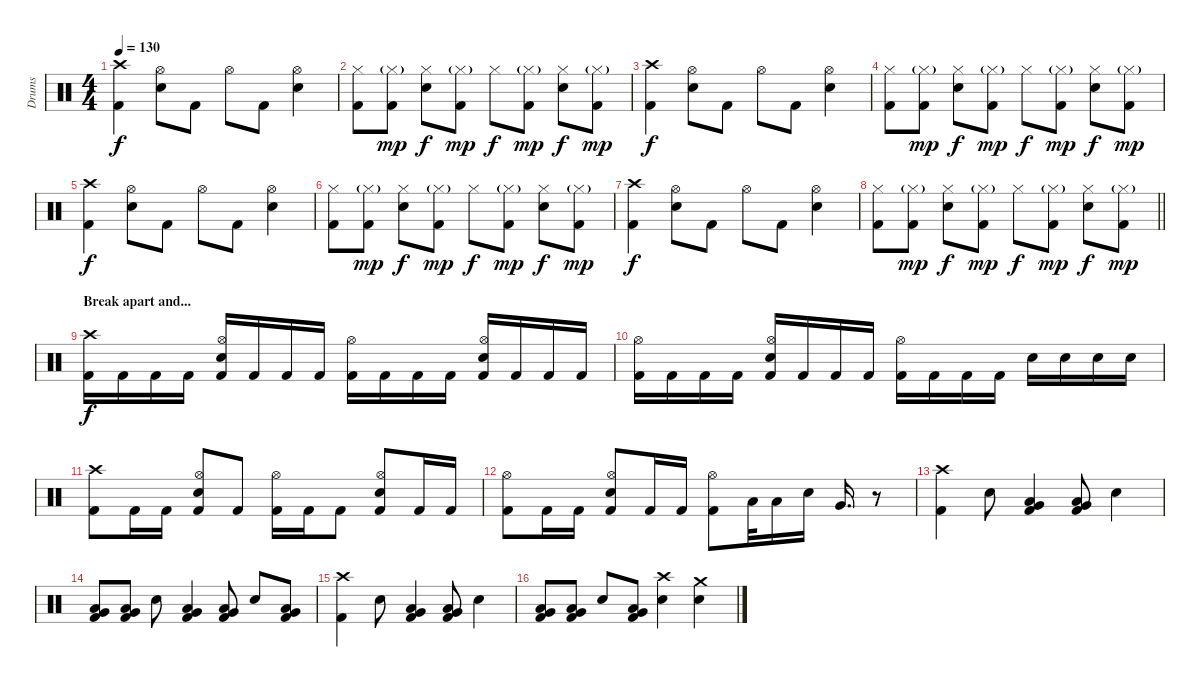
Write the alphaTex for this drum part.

\track ("Drums" "Drums") {instrument percussion}
\staff {score}
\articulation defaults
\ts (4 4)
\section ("" "")
\tempo 130
\clef neutral
\ks c
("Crash high (hit)" "Kick (hit) 2").4{dy f} ("Hi-Hat (open)" "Snare (hit) 2").8 "Kick (hit) 2".8 "Hi-Hat (open)".8 "Kick (hit) 2".8 ("Hi-Hat (open)" "Snare (hit) 2").4 |
("Hi-Hat (closed)" "Kick (hit) 2").8 ("Hi-Hat (closed)"{g} "Kick (hit) 2").8{dy mp} ("Hi-Hat (closed)" "Snare (hit) 2").8{dy f} ("Hi-Hat (closed)"{g} "Kick (hit) 2").8{dy mp} "Hi-Hat (closed)".8{dy f} ("Hi-Hat (closed)"{g} "Kick (hit) 2").8{dy mp} ("Hi-Hat (closed)" "Snare (hit) 2").8{dy f} ("Hi-Hat (closed)"{g} "Kick (hit) 2").8{dy mp} |
("Crash high (hit)" "Kick (hit) 2").4{dy f} ("Hi-Hat (open)" "Snare (hit) 2").8 "Kick (hit) 2".8 "Hi-Hat (open)".8 "Kick (hit) 2".8 ("Hi-Hat (open)" "Snare (hit) 2").4 |
("Hi-Hat (closed)" "Kick (hit) 2").8 ("Hi-Hat (closed)"{g} "Kick (hit) 2").8{dy mp} ("Hi-Hat (closed)" "Snare (hit) 2").8{dy f} ("Hi-Hat (closed)"{g} "Kick (hit) 2").8{dy mp} "Hi-Hat (closed)".8{dy f} ("Hi-Hat (closed)"{g} "Kick (hit) 2").8{dy mp} ("Hi-Hat (closed)" "Snare (hit) 2").8{dy f} ("Hi-Hat (closed)"{g} "Kick (hit) 2").8{dy mp} |
("Crash high (hit)" "Kick (hit) 2").4{dy f} ("Hi-Hat (open)" "Snare (hit) 2").8 "Kick (hit) 2".8 "Hi-Hat (open)".8 "Kick (hit) 2".8 ("Hi-Hat (open)" "Snare (hit) 2").4 |
("Hi-Hat (closed)" "Kick (hit) 2").8 ("Hi-Hat (closed)"{g} "Kick (hit) 2").8{dy mp} ("Hi-Hat (closed)" "Snare (hit) 2").8{dy f} ("Hi-Hat (closed)"{g} "Kick (hit) 2").8{dy mp} "Hi-Hat (closed)".8{dy f} ("Hi-Hat (closed)"{g} "Kick (hit) 2").8{dy mp} ("Hi-Hat (closed)" "Snare (hit) 2").8{dy f} ("Hi-Hat (closed)"{g} "Kick (hit) 2").8{dy mp} |
("Crash high (hit)" "Kick (hit) 2").4{dy f} ("Hi-Hat (open)" "Snare (hit) 2").8 "Kick (hit) 2".8 "Hi-Hat (open)".8 "Kick (hit) 2".8 ("Hi-Hat (open)" "Snare (hit) 2").4 |
\barLineRight lightlight
("Hi-Hat (closed)" "Kick (hit) 2").8 ("Hi-Hat (closed)"{g} "Kick (hit) 2").8{dy mp} ("Hi-Hat (closed)" "Snare (hit) 2").8{dy f} ("Hi-Hat (closed)"{g} "Kick (hit) 2").8{dy mp} "Hi-Hat (closed)".8{dy f} ("Hi-Hat (closed)"{g} "Kick (hit) 2").8{dy mp} ("Hi-Hat (closed)" "Snare (hit) 2").8{dy f} ("Hi-Hat (closed)"{g} "Kick (hit) 2").8{dy mp} |
\section ("" "Break apart and...")
("Crash high (hit)" "Kick (hit) 2").16{dy f} "Kick (hit) 2".16 "Kick (hit) 2".16 "Kick (hit) 2".16 ("Hi-Hat (open)" "Snare (hit) 2" "Kick (hit) 2").16 "Kick (hit) 2".16 "Kick (hit) 2".16 "Kick (hit) 2".16 ("Hi-Hat (open)" "Kick (hit) 2").16 "Kick (hit) 2".16 "Kick (hit) 2".16 "Kick (hit) 2".16 ("Hi-Hat (open)" "Snare (hit) 2" "Kick (hit) 2").16 "Kick (hit) 2".16 "Kick (hit) 2".16 "Kick (hit) 2".16 |
("Hi-Hat (open)" "Kick (hit) 2").16 "Kick (hit) 2".16 "Kick (hit) 2".16 "Kick (hit) 2".16 ("Hi-Hat (open)" "Snare (hit) 2" "Kick (hit) 2").16 "Kick (hit) 2".16 "Kick (hit) 2".16 "Kick (hit) 2".16 ("Hi-Hat (open)" "Kick (hit) 2").16 "Kick (hit) 2".16 "Kick (hit) 2".16 "Kick (hit) 2".16 "Snare (hit) 2".16 "Snare (hit) 2".16 "Snare (hit) 2".16 "Snare (hit) 2".16 |
("Crash high (hit)" "Kick (hit) 2").8 "Kick (hit) 2".16 "Kick (hit) 2".16 ("Hi-Hat (open)" "Snare (hit) 2" "Kick (hit) 2").8 "Kick (hit) 2".8 ("Hi-Hat (open)" "Kick (hit) 2").16 "Kick (hit) 2".16 "Kick (hit) 2".8 ("Hi-Hat (open)" "Snare (hit) 2" "Kick (hit) 2").8 "Kick (hit) 2".16 "Kick (hit) 2".16 |
("Hi-Hat (open)" "Kick (hit) 2").8 "Kick (hit) 2".16 "Kick (hit) 2".16 ("Hi-Hat (open)" "Snare (hit) 2" "Kick (hit) 2").8 "Kick (hit) 2".16 "Kick (hit) 2".16 ("Hi-Hat (open)" "Kick (hit) 2").8 "Low Tom (hit)".32 "Low Tom (hit)".16 "Snare (hit) 2".16 "Very Low Tom (hit)".16{d} r.8 |
("Crash high (hit)" "Kick (hit) 2").4 "Snare (hit) 2".8 ("Low Tom (hit)" "Very Low Tom (hit)" "Kick (hit) 2").4 ("Low Tom (hit)" "Very Low Tom (hit)" "Kick (hit) 2").8 "Snare (hit) 2".4 |
("Low Floor Tom (hit)" "Very Low Tom (hit)" "Kick (hit) 2").8 ("Low Floor Tom (hit)" "Very Low Tom (hit)" "Kick (hit) 2").8 "Snare (hit) 2".8 ("Low Tom (hit)" "Very Low Tom (hit)" "Kick (hit) 2").4 ("Low Tom (hit)" "Very Low Tom (hit)" "Kick (hit) 2").8 "Snare (hit) 2".8 ("Low Tom (hit)" "Very Low Tom (hit)" "Kick (hit) 2").8 |
("Crash high (hit)" "Kick (hit) 2").4 "Snare (hit) 2".8 ("Low Tom (hit)" "Very Low Tom (hit)" "Kick (hit) 2").4 ("Low Tom (hit)" "Very Low Tom (hit)" "Kick (hit) 2").8 "Snare (hit) 2".4 |
("Low Floor Tom (hit)" "Very Low Tom (hit)" "Kick (hit) 2").8 ("Low Floor Tom (hit)" "Very Low Tom (hit)" "Kick (hit) 2").8 "Snare (hit) 2".8 ("Low Tom (hit)" "Very Low Tom (hit)" "Kick (hit) 2").8 ("Crash high (hit)" "Snare (hit) 2").4 ("Crash medium (hit)" "Snare (hit) 2").4
